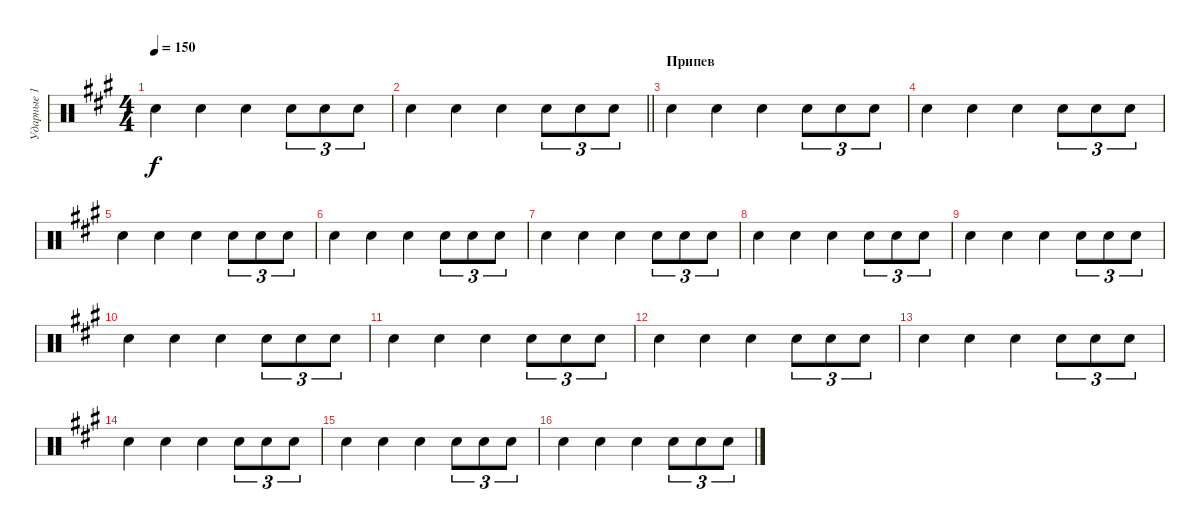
\track ("Ударные 1" "Ударные 1") {instrument percussion}
\staff {score}
\articulation defaults
\ts (4 4)
\tempo 150
\clef neutral
\ks f#minor "Snare (hit) 2".4{dy f} "Snare (hit) 2".4 "Snare (hit) 2".4 "Snare (hit) 2".8{tu (3 2)} "Snare (hit) 2".8{tu (3 2)} "Snare (hit) 2".8{tu (3 2)}
|
\barLineRight lightlight "Snare (hit) 2".4 "Snare (hit) 2".4 "Snare (hit) 2".4 "Snare (hit) 2".8{tu (3 2)} "Snare (hit) 2".8{tu (3 2)} "Snare (hit) 2".8{tu (3 2)}
|
\section ("" "Припев")
"Snare (hit) 2".4 "Snare (hit) 2".4 "Snare (hit) 2".4 "Snare (hit) 2".8{tu (3 2)} "Snare (hit) 2".8{tu (3 2)} "Snare (hit) 2".8{tu (3 2)} |
"Snare (hit) 2".4 "Snare (hit) 2".4 "Snare (hit) 2".4 "Snare (hit) 2".8{tu (3 2)} "Snare (hit) 2".8{tu (3 2)} "Snare (hit) 2".8{tu (3 2)} |
"Snare (hit) 2".4 "Snare (hit) 2".4 "Snare (hit) 2".4 "Snare (hit) 2".8{tu (3 2)} "Snare (hit) 2".8{tu (3 2)} "Snare (hit) 2".8{tu (3 2)} |
"Snare (hit) 2".4 "Snare (hit) 2".4 "Snare (hit) 2".4 "Snare (hit) 2".8{tu (3 2)} "Snare (hit) 2".8{tu (3 2)} "Snare (hit) 2".8{tu (3 2)} |
"Snare (hit) 2".4 "Snare (hit) 2".4 "Snare (hit) 2".4 "Snare (hit) 2".8{tu (3 2)} "Snare (hit) 2".8{tu (3 2)} "Snare (hit) 2".8{tu (3 2)} |
"Snare (hit) 2".4 "Snare (hit) 2".4 "Snare (hit) 2".4 "Snare (hit) 2".8{tu (3 2)} "Snare (hit) 2".8{tu (3 2)} "Snare (hit) 2".8{tu (3 2)} |
"Snare (hit) 2".4 "Snare (hit) 2".4 "Snare (hit) 2".4 "Snare (hit) 2".8{tu (3 2)} "Snare (hit) 2".8{tu (3 2)} "Snare (hit) 2".8{tu (3 2)} |
"Snare (hit) 2".4 "Snare (hit) 2".4 "Snare (hit) 2".4 "Snare (hit) 2".8{tu (3 2)} "Snare (hit) 2".8{tu (3 2)} "Snare (hit) 2".8{tu (3 2)} |
"Snare (hit) 2".4 "Snare (hit) 2".4 "Snare (hit) 2".4 "Snare (hit) 2".8{tu (3 2)} "Snare (hit) 2".8{tu (3 2)} "Snare (hit) 2".8{tu (3 2)} |
"Snare (hit) 2".4 "Snare (hit) 2".4 "Snare (hit) 2".4 "Snare (hit) 2".8{tu (3 2)} "Snare (hit) 2".8{tu (3 2)} "Snare (hit) 2".8{tu (3 2)} |
"Snare (hit) 2".4 "Snare (hit) 2".4 "Snare (hit) 2".4 "Snare (hit) 2".8{tu (3 2)} "Snare (hit) 2".8{tu (3 2)} "Snare (hit) 2".8{tu (3 2)} |
"Snare (hit) 2".4 "Snare (hit) 2".4 "Snare (hit) 2".4 "Snare (hit) 2".8{tu (3 2)} "Snare (hit) 2".8{tu (3 2)} "Snare (hit) 2".8{tu (3 2)} |
"Snare (hit) 2".4 "Snare (hit) 2".4 "Snare (hit) 2".4 "Snare (hit) 2".8{tu (3 2)} "Snare (hit) 2".8{tu (3 2)} "Snare (hit) 2".8{tu (3 2)} |
"Snare (hit) 2".4 "Snare (hit) 2".4 "Snare (hit) 2".4 "Snare (hit) 2".8{tu (3 2)} "Snare (hit) 2".8{tu (3 2)} "Snare (hit) 2".8{tu (3 2)}
